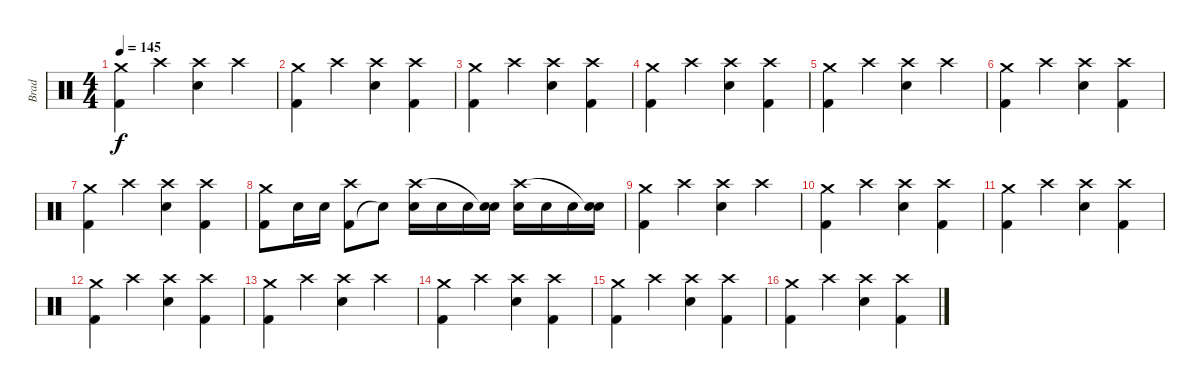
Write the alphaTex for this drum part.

\track ("Brad" "Brad") {instrument percussion}
\staff {score}
\articulation defaults
\ts (4 4)
\tempo 145
\clef neutral
\ks c
("Kick (hit) 2" "Crash medium (hit)").4{dy f} "Crash high (hit)".4 ("Snare (hit) 2" "Crash high (hit)").4 "Crash high (hit)".4 |
("Kick (hit) 2" "Crash medium (hit)").4 "Crash high (hit)".4 ("Snare (hit) 2" "Crash high (hit)").4 ("Kick (hit) 2" "Crash high (hit)").4 |
("Kick (hit) 2" "Crash medium (hit)").4 "Crash high (hit)".4 ("Snare (hit) 2" "Crash high (hit)").4 ("Kick (hit) 2" "Crash high (hit)").4 |
("Kick (hit) 2" "Crash medium (hit)").4 "Crash high (hit)".4 ("Snare (hit) 2" "Crash high (hit)").4 ("Kick (hit) 2" "Crash high (hit)").4 |
("Kick (hit) 2" "Crash medium (hit)").4 "Crash high (hit)".4 ("Snare (hit) 2" "Crash high (hit)").4 "Crash high (hit)".4 |
("Kick (hit) 2" "Crash medium (hit)").4 "Crash high (hit)".4 ("Snare (hit) 2" "Crash high (hit)").4 ("Kick (hit) 2" "Crash high (hit)").4 |
("Kick (hit) 2" "Crash medium (hit)").4 "Crash high (hit)".4 ("Snare (hit) 2" "Crash high (hit)").4 ("Kick (hit) 2" "Crash high (hit)").4 |
("Kick (hit) 2" "Crash medium (hit)").8 "Snare (hit) 2".16 "Snare (hit) 2".16 ("Kick (hit) 2" "Crash high (hit)").8 "Snare (hit)"{t}.8 ("Snare (hit) 2" "Crash high (hit)").16 "Snare (hit) 2".16 "Snare (hit) 2".16 ("Snare (hit) 2" "Snare (hit)"{t}).16 ("Snare (hit) 2" "Crash high (hit)").16 "Snare (hit) 2".16 "Snare (hit) 2".16 ("Snare (hit) 2" "Snare (hit)"{t}).16 |
("Kick (hit) 2" "Crash medium (hit)").4 "Crash high (hit)".4 ("Snare (hit) 2" "Crash high (hit)").4 "Crash high (hit)".4 |
("Kick (hit) 2" "Crash medium (hit)").4 "Crash high (hit)".4 ("Snare (hit) 2" "Crash high (hit)").4 ("Kick (hit) 2" "Crash high (hit)").4 |
("Kick (hit) 2" "Crash medium (hit)").4 "Crash high (hit)".4 ("Snare (hit) 2" "Crash high (hit)").4 ("Kick (hit) 2" "Crash high (hit)").4 |
("Kick (hit) 2" "Crash medium (hit)").4 "Crash high (hit)".4 ("Snare (hit) 2" "Crash high (hit)").4 ("Kick (hit) 2" "Crash high (hit)").4 |
("Kick (hit) 2" "Crash medium (hit)").4 "Crash high (hit)".4 ("Snare (hit) 2" "Crash high (hit)").4 "Crash high (hit)".4 |
("Kick (hit) 2" "Crash medium (hit)").4 "Crash high (hit)".4 ("Snare (hit) 2" "Crash high (hit)").4 ("Kick (hit) 2" "Crash high (hit)").4 |
("Kick (hit) 2" "Crash medium (hit)").4 "Crash high (hit)".4 ("Snare (hit) 2" "Crash high (hit)").4 ("Kick (hit) 2" "Crash high (hit)").4 |
("Kick (hit) 2" "Crash medium (hit)").4 "Crash high (hit)".4 ("Snare (hit) 2" "Crash high (hit)").4 ("Kick (hit) 2" "Crash high (hit)").4
